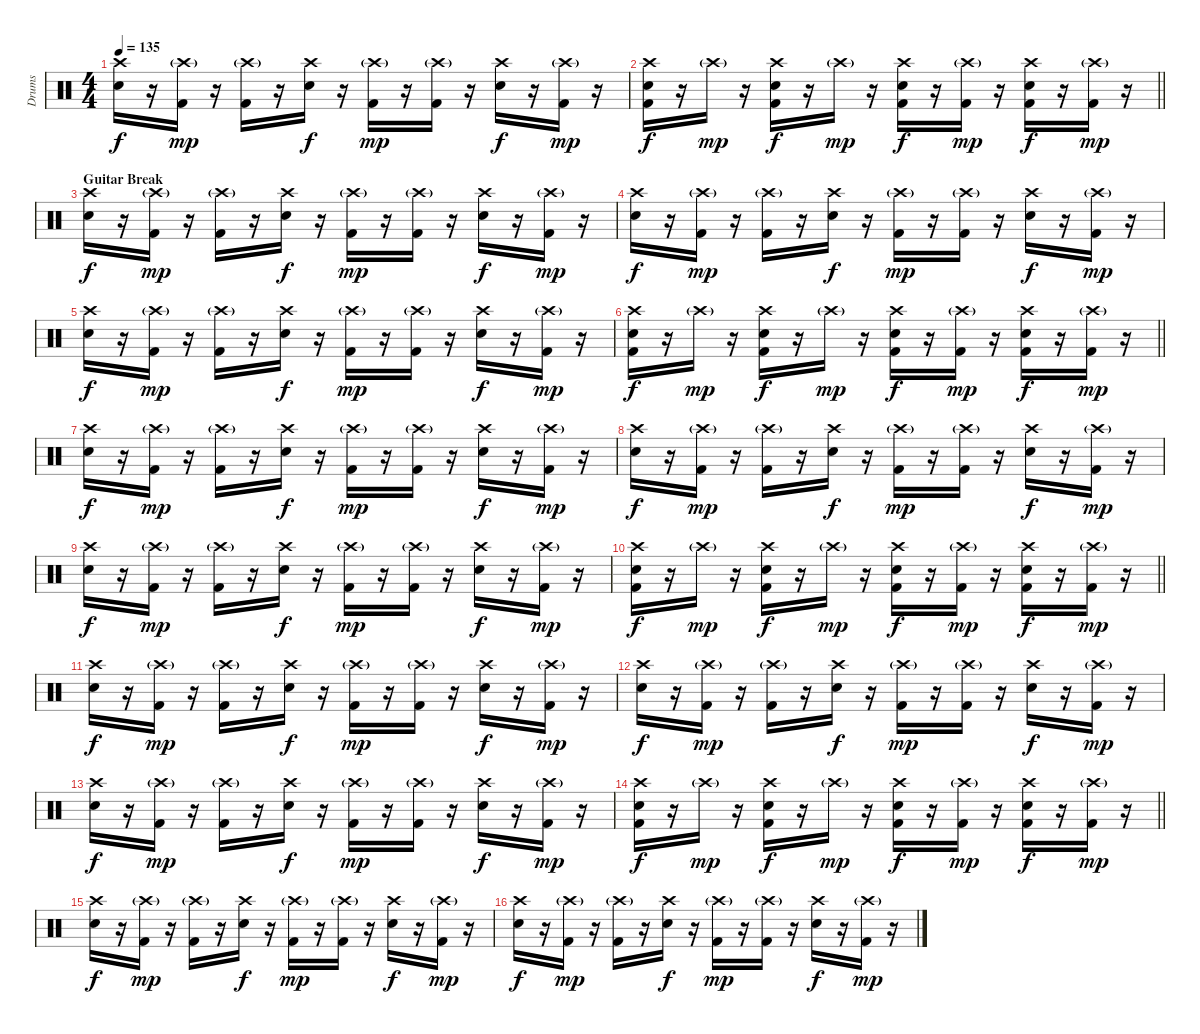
\track ("Drums" "Drums") {instrument percussion}
\staff {score}
\articulation defaults
\ts (4 4)
\tempo 135
\clef neutral
\ks c
("Snare (hit) 2" "Crash high (hit)").16{dy f} r.16 ("Kick (hit) 2" "Crash high (hit)"{g}).16{dy mp} r.16 ("Kick (hit) 2" "Crash high (hit)"{g}).16 r.16 ("Snare (hit) 2" "Crash high (hit)").16{dy f} r.16 ("Kick (hit) 2" "Crash high (hit)"{g}).16{dy mp} r.16 ("Kick (hit) 2" "Crash high (hit)"{g}).16 r.16 ("Snare (hit) 2" "Crash high (hit)").16{dy f} r.16 ("Kick (hit) 2" "Crash high (hit)"{g}).16{dy mp} r.16 |
\barLineRight lightlight
("Kick (hit) 2" "Snare (hit) 2" "Crash high (hit)").16{dy f} r.16 "Crash high (hit)"{g}.16{dy mp} r.16 ("Kick (hit) 2" "Snare (hit) 2" "Crash high (hit)").16{dy f} r.16 "Crash high (hit)"{g}.16{dy mp} r.16 ("Kick (hit) 2" "Snare (hit) 2" "Crash high (hit)").16{dy f} r.16 ("Kick (hit) 2" "Crash high (hit)"{g}).16{dy mp} r.16 ("Kick (hit) 2" "Snare (hit) 2" "Crash high (hit)").16{dy f} r.16 ("Kick (hit) 2" "Crash high (hit)"{g}).16{dy mp} r.16 |
\section ("" "Guitar Break")
("Snare (hit) 2" "Crash high (hit)").16{dy f volume 15} r.16 ("Kick (hit) 2" "Crash high (hit)"{g}).16{dy mp} r.16 ("Kick (hit) 2" "Crash high (hit)"{g}).16 r.16 ("Snare (hit) 2" "Crash high (hit)").16{dy f} r.16 ("Kick (hit) 2" "Crash high (hit)"{g}).16{dy mp} r.16 ("Kick (hit) 2" "Crash high (hit)"{g}).16 r.16 ("Snare (hit) 2" "Crash high (hit)").16{dy f} r.16 ("Kick (hit) 2" "Crash high (hit)"{g}).16{dy mp} r.16 |
("Snare (hit) 2" "Crash high (hit)").16{dy f} r.16 ("Kick (hit) 2" "Crash high (hit)"{g}).16{dy mp} r.16 ("Kick (hit) 2" "Crash high (hit)"{g}).16 r.16 ("Snare (hit) 2" "Crash high (hit)").16{dy f} r.16 ("Kick (hit) 2" "Crash high (hit)"{g}).16{dy mp} r.16 ("Kick (hit) 2" "Crash high (hit)"{g}).16 r.16 ("Snare (hit) 2" "Crash high (hit)").16{dy f} r.16 ("Kick (hit) 2" "Crash high (hit)"{g}).16{dy mp} r.16 |
("Snare (hit) 2" "Crash high (hit)").16{dy f} r.16 ("Kick (hit) 2" "Crash high (hit)"{g}).16{dy mp} r.16 ("Kick (hit) 2" "Crash high (hit)"{g}).16 r.16 ("Snare (hit) 2" "Crash high (hit)").16{dy f} r.16 ("Kick (hit) 2" "Crash high (hit)"{g}).16{dy mp} r.16 ("Kick (hit) 2" "Crash high (hit)"{g}).16 r.16 ("Snare (hit) 2" "Crash high (hit)").16{dy f} r.16 ("Kick (hit) 2" "Crash high (hit)"{g}).16{dy mp} r.16 |
\barLineRight lightlight
("Kick (hit) 2" "Snare (hit) 2" "Crash high (hit)").16{dy f} r.16 "Crash high (hit)"{g}.16{dy mp} r.16 ("Kick (hit) 2" "Snare (hit) 2" "Crash high (hit)").16{dy f} r.16 "Crash high (hit)"{g}.16{dy mp} r.16 ("Kick (hit) 2" "Snare (hit) 2" "Crash high (hit)").16{dy f} r.16 ("Kick (hit) 2" "Crash high (hit)"{g}).16{dy mp} r.16 ("Kick (hit) 2" "Snare (hit) 2" "Crash high (hit)").16{dy f} r.16 ("Kick (hit) 2" "Crash high (hit)"{g}).16{dy mp} r.16 |
("Snare (hit) 2" "Crash high (hit)").16{dy f} r.16 ("Kick (hit) 2" "Crash high (hit)"{g}).16{dy mp} r.16 ("Kick (hit) 2" "Crash high (hit)"{g}).16 r.16 ("Snare (hit) 2" "Crash high (hit)").16{dy f} r.16 ("Kick (hit) 2" "Crash high (hit)"{g}).16{dy mp} r.16 ("Kick (hit) 2" "Crash high (hit)"{g}).16 r.16 ("Snare (hit) 2" "Crash high (hit)").16{dy f} r.16 ("Kick (hit) 2" "Crash high (hit)"{g}).16{dy mp} r.16 |
("Snare (hit) 2" "Crash high (hit)").16{dy f} r.16 ("Kick (hit) 2" "Crash high (hit)"{g}).16{dy mp} r.16 ("Kick (hit) 2" "Crash high (hit)"{g}).16 r.16 ("Snare (hit) 2" "Crash high (hit)").16{dy f} r.16 ("Kick (hit) 2" "Crash high (hit)"{g}).16{dy mp} r.16 ("Kick (hit) 2" "Crash high (hit)"{g}).16 r.16 ("Snare (hit) 2" "Crash high (hit)").16{dy f} r.16 ("Kick (hit) 2" "Crash high (hit)"{g}).16{dy mp} r.16 |
("Snare (hit) 2" "Crash high (hit)").16{dy f} r.16 ("Kick (hit) 2" "Crash high (hit)"{g}).16{dy mp} r.16 ("Kick (hit) 2" "Crash high (hit)"{g}).16 r.16 ("Snare (hit) 2" "Crash high (hit)").16{dy f} r.16 ("Kick (hit) 2" "Crash high (hit)"{g}).16{dy mp} r.16 ("Kick (hit) 2" "Crash high (hit)"{g}).16 r.16 ("Snare (hit) 2" "Crash high (hit)").16{dy f} r.16 ("Kick (hit) 2" "Crash high (hit)"{g}).16{dy mp} r.16 |
\barLineRight lightlight
("Kick (hit) 2" "Snare (hit) 2" "Crash high (hit)").16{dy f} r.16 "Crash high (hit)"{g}.16{dy mp} r.16 ("Kick (hit) 2" "Snare (hit) 2" "Crash high (hit)").16{dy f} r.16 "Crash high (hit)"{g}.16{dy mp} r.16 ("Kick (hit) 2" "Snare (hit) 2" "Crash high (hit)").16{dy f} r.16 ("Kick (hit) 2" "Crash high (hit)"{g}).16{dy mp} r.16 ("Kick (hit) 2" "Snare (hit) 2" "Crash high (hit)").16{dy f} r.16 ("Kick (hit) 2" "Crash high (hit)"{g}).16{dy mp} r.16 |
("Snare (hit) 2" "Crash high (hit)").16{dy f} r.16 ("Kick (hit) 2" "Crash high (hit)"{g}).16{dy mp} r.16 ("Kick (hit) 2" "Crash high (hit)"{g}).16 r.16 ("Snare (hit) 2" "Crash high (hit)").16{dy f} r.16 ("Kick (hit) 2" "Crash high (hit)"{g}).16{dy mp} r.16 ("Kick (hit) 2" "Crash high (hit)"{g}).16 r.16 ("Snare (hit) 2" "Crash high (hit)").16{dy f} r.16 ("Kick (hit) 2" "Crash high (hit)"{g}).16{dy mp} r.16 |
("Snare (hit) 2" "Crash high (hit)").16{dy f} r.16 ("Kick (hit) 2" "Crash high (hit)"{g}).16{dy mp} r.16 ("Kick (hit) 2" "Crash high (hit)"{g}).16 r.16 ("Snare (hit) 2" "Crash high (hit)").16{dy f} r.16 ("Kick (hit) 2" "Crash high (hit)"{g}).16{dy mp} r.16 ("Kick (hit) 2" "Crash high (hit)"{g}).16 r.16 ("Snare (hit) 2" "Crash high (hit)").16{dy f} r.16 ("Kick (hit) 2" "Crash high (hit)"{g}).16{dy mp} r.16 |
("Snare (hit) 2" "Crash high (hit)").16{dy f} r.16 ("Kick (hit) 2" "Crash high (hit)"{g}).16{dy mp} r.16 ("Kick (hit) 2" "Crash high (hit)"{g}).16 r.16 ("Snare (hit) 2" "Crash high (hit)").16{dy f} r.16 ("Kick (hit) 2" "Crash high (hit)"{g}).16{dy mp} r.16 ("Kick (hit) 2" "Crash high (hit)"{g}).16 r.16 ("Snare (hit) 2" "Crash high (hit)").16{dy f} r.16 ("Kick (hit) 2" "Crash high (hit)"{g}).16{dy mp} r.16 |
\barLineRight lightlight
("Kick (hit) 2" "Snare (hit) 2" "Crash high (hit)").16{dy f} r.16 "Crash high (hit)"{g}.16{dy mp} r.16 ("Kick (hit) 2" "Snare (hit) 2" "Crash high (hit)").16{dy f} r.16 "Crash high (hit)"{g}.16{dy mp} r.16 ("Kick (hit) 2" "Snare (hit) 2" "Crash high (hit)").16{dy f} r.16 ("Kick (hit) 2" "Crash high (hit)"{g}).16{dy mp} r.16 ("Kick (hit) 2" "Snare (hit) 2" "Crash high (hit)").16{dy f} r.16 ("Kick (hit) 2" "Crash high (hit)"{g}).16{dy mp} r.16 |
("Snare (hit) 2" "Crash high (hit)").16{dy f} r.16 ("Kick (hit) 2" "Crash high (hit)"{g}).16{dy mp} r.16 ("Kick (hit) 2" "Crash high (hit)"{g}).16 r.16 ("Snare (hit) 2" "Crash high (hit)").16{dy f} r.16 ("Kick (hit) 2" "Crash high (hit)"{g}).16{dy mp} r.16 ("Kick (hit) 2" "Crash high (hit)"{g}).16 r.16 ("Snare (hit) 2" "Crash high (hit)").16{dy f} r.16 ("Kick (hit) 2" "Crash high (hit)"{g}).16{dy mp} r.16 |
("Snare (hit) 2" "Crash high (hit)").16{dy f} r.16 ("Kick (hit) 2" "Crash high (hit)"{g}).16{dy mp} r.16 ("Kick (hit) 2" "Crash high (hit)"{g}).16 r.16 ("Snare (hit) 2" "Crash high (hit)").16{dy f} r.16 ("Kick (hit) 2" "Crash high (hit)"{g}).16{dy mp} r.16 ("Kick (hit) 2" "Crash high (hit)"{g}).16 r.16 ("Snare (hit) 2" "Crash high (hit)").16{dy f} r.16 ("Kick (hit) 2" "Crash high (hit)"{g}).16{dy mp} r.16
